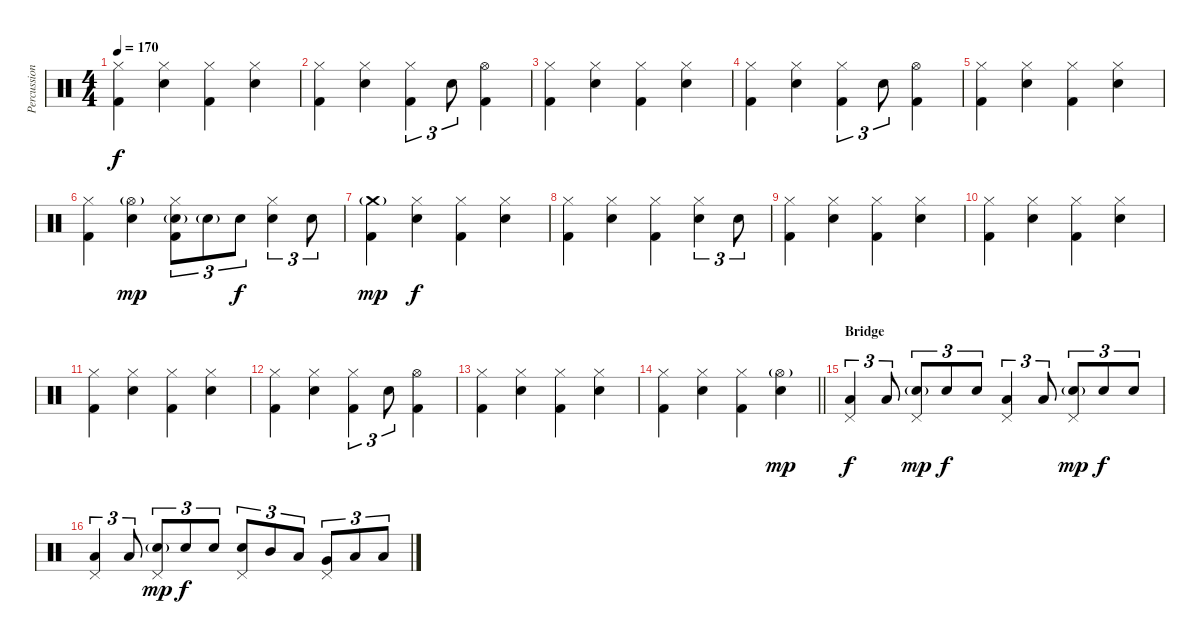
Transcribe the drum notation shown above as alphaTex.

\track ("Percussion" "Percussion") {instrument percussion}
\staff {score}
\articulation defaults
\ts (4 4)
\tempo 170
\clef neutral
\ks c
("Hi-Hat (closed)" "Kick (hit) 2").4{dy f} ("Hi-Hat (closed)" "Snare (hit) 2").4 ("Hi-Hat (closed)" "Kick (hit) 2").4 ("Hi-Hat (closed)" "Snare (hit) 2").4 |
("Hi-Hat (closed)" "Kick (hit) 2").4 ("Hi-Hat (closed)" "Snare (hit) 2").4 ("Hi-Hat (closed)" "Kick (hit) 2").4{tu (3 2)} "Snare (hit) 2".8{tu (3 2)} ("Hi-Hat (open)" "Kick (hit) 2").4 |
("Hi-Hat (closed)" "Kick (hit) 2").4 ("Hi-Hat (closed)" "Snare (hit) 2").4 ("Hi-Hat (closed)" "Kick (hit) 2").4 ("Hi-Hat (closed)" "Snare (hit) 2").4 |
("Hi-Hat (closed)" "Kick (hit) 2").4 ("Hi-Hat (closed)" "Snare (hit) 2").4 ("Hi-Hat (closed)" "Kick (hit) 2").4{tu (3 2)} "Snare (hit) 2".8{tu (3 2)} ("Hi-Hat (open)" "Kick (hit) 2").4 |
("Hi-Hat (closed)" "Kick (hit) 2").4 ("Hi-Hat (closed)" "Snare (hit) 2").4 ("Hi-Hat (closed)" "Kick (hit) 2").4 ("Hi-Hat (closed)" "Snare (hit) 2").4 |
("Hi-Hat (closed)" "Kick (hit) 2").4 ("Hi-Hat (open)"{g} "Snare (hit) 2").4{dy mp} ("Hi-Hat (closed)" "Snare (hit) 2"{g} "Kick (hit) 2").8{tu (3 2)} "Snare (hit) 2"{g}.8{tu (3 2)} "Snare (hit) 2".8{tu (3 2) dy f} ("Hi-Hat (closed)" "Snare (hit) 2").4{tu (3 2)} "Snare (hit) 2".8{tu (3 2)} |
("Crash medium (hit)"{g} "Kick (hit) 2").4{dy mp} ("Hi-Hat (closed)" "Snare (hit) 2").4{dy f} ("Hi-Hat (closed)" "Kick (hit) 2").4 ("Hi-Hat (closed)" "Snare (hit) 2").4 |
("Hi-Hat (closed)" "Kick (hit) 2").4 ("Hi-Hat (closed)" "Snare (hit) 2").4 ("Hi-Hat (closed)" "Kick (hit) 2").4 ("Hi-Hat (closed)" "Snare (hit) 2").4{tu (3 2)} "Snare (hit) 2".8{tu (3 2)} |
("Hi-Hat (closed)" "Kick (hit) 2").4 ("Hi-Hat (closed)" "Snare (hit) 2").4 ("Hi-Hat (closed)" "Kick (hit) 2").4 ("Hi-Hat (closed)" "Snare (hit) 2").4 |
("Hi-Hat (closed)" "Kick (hit) 2").4 ("Hi-Hat (closed)" "Snare (hit) 2").4 ("Hi-Hat (closed)" "Kick (hit) 2").4 ("Hi-Hat (closed)" "Snare (hit) 2").4 |
("Hi-Hat (closed)" "Kick (hit) 2").4 ("Hi-Hat (closed)" "Snare (hit) 2").4 ("Hi-Hat (closed)" "Kick (hit) 2").4 ("Hi-Hat (closed)" "Snare (hit) 2").4 |
("Hi-Hat (closed)" "Kick (hit) 2").4 ("Hi-Hat (closed)" "Snare (hit) 2").4 ("Hi-Hat (closed)" "Kick (hit) 2").4{tu (3 2)} "Snare (hit) 2".8{tu (3 2)} ("Hi-Hat (open)" "Kick (hit) 2").4 |
("Hi-Hat (closed)" "Kick (hit) 2").4 ("Hi-Hat (closed)" "Snare (hit) 2").4 ("Hi-Hat (closed)" "Kick (hit) 2").4 ("Hi-Hat (closed)" "Snare (hit) 2").4 |
\barLineRight lightlight
("Hi-Hat (closed)" "Kick (hit) 2").4 ("Hi-Hat (closed)" "Snare (hit) 2").4 ("Hi-Hat (closed)" "Kick (hit) 2").4 ("Hi-Hat (open)"{g} "Snare (hit) 2").4{dy mp} |
\section ("" "Bridge")
("Pedal Hi-Hat (hit)" "Low Tom (hit)").4{tu (3 2) dy f} "Low Tom (hit)".8{tu (3 2)} ("Pedal Hi-Hat (hit)" "Snare (hit) 2"{g}).8{tu (3 2) dy mp} "Snare (hit) 2".8{tu (3 2) dy f} "Snare (hit) 2".8{tu (3 2)} ("Pedal Hi-Hat (hit)" "Low Tom (hit)").4{tu (3 2)} "Low Tom (hit)".8{tu (3 2)} ("Pedal Hi-Hat (hit)" "Snare (hit) 2"{g}).8{tu (3 2) dy mp} "Snare (hit) 2".8{tu (3 2) dy f} "Snare (hit) 2".8{tu (3 2)} |
("Pedal Hi-Hat (hit)" "Low Tom (hit)").4{tu (3 2)} "Low Tom (hit)".8{tu (3 2)} ("Pedal Hi-Hat (hit)" "Snare (hit) 2"{g}).8{tu (3 2) dy mp} "Snare (hit) 2".8{tu (3 2) dy f} "Snare (hit) 2".8{tu (3 2)} ("Pedal Hi-Hat (hit)" "Snare (hit) 2").8{tu (3 2)} "Mid Tom (hit)".8{tu (3 2)} "Low Tom (hit)".8{tu (3 2)} ("Pedal Hi-Hat (hit)" "Very Low Tom (hit)").8{tu (3 2)} "Low Floor Tom (hit)".8{tu (3 2)} "Low Floor Tom (hit)".8{tu (3 2)}
